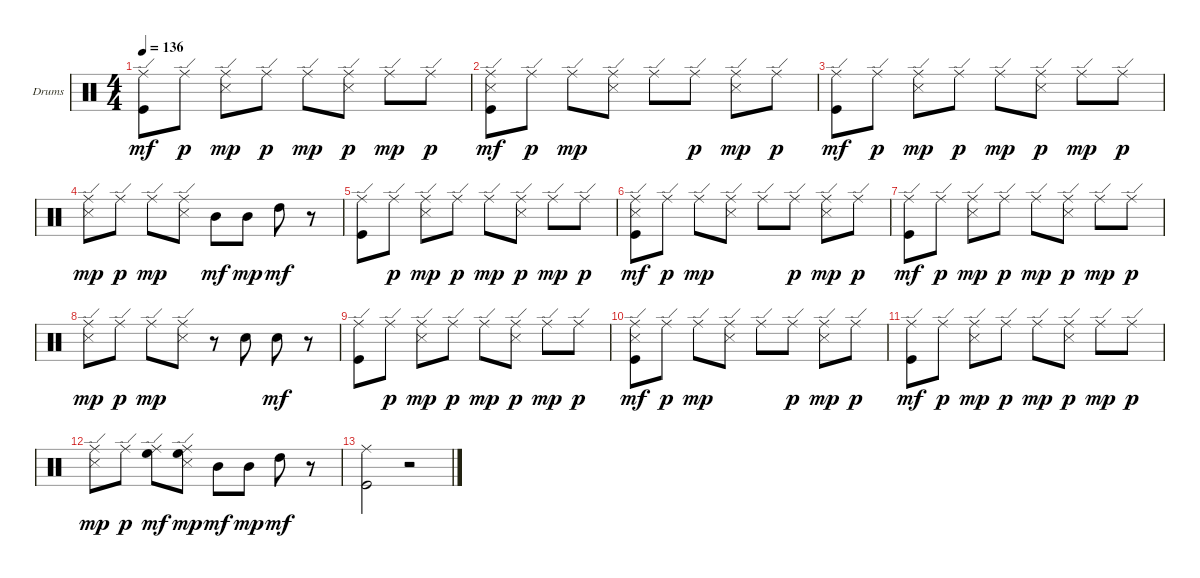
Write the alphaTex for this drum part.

\bracketExtendMode groupsimilarinstruments
\firstSystemTrackNameOrientation horizontal
\otherSystemsTrackNameOrientation horizontal
\track ("Drumkit" "Drums") {instrument percussion}
\staff {score}
\articulation defaults
\ts (4 4)
\tempo 136
\clef neutral
\ks c
("Kick (hit)" "Ride (edge)").8{dy mf} "Ride (edge)".8{dy p} ("Snare (side stick) 3" "Ride (edge)").8{dy mp} "Ride (edge)".8{dy p} "Ride (edge)".8{dy mp} ("Snare (side stick) 3" "Ride (edge)").8{dy p} "Ride (edge)".8{dy mp} "Ride (edge)".8{dy p} |
("Kick (hit)" "Snare (side stick) 3" "Ride (edge)").8{dy mf} "Ride (edge)".8{dy p} "Ride (edge)".8{dy mp} ("Snare (side stick) 3" "Ride (edge)").8 "Ride (edge)".8 "Ride (edge)".8{dy p} ("Snare (side stick) 3" "Ride (edge)").8{dy mp} "Ride (edge)".8{dy p} |
("Kick (hit)" "Ride (edge)").8{dy mf} "Ride (edge)".8{dy p} ("Snare (side stick) 3" "Ride (edge)").8{dy mp} "Ride (edge)".8{dy p} "Ride (edge)".8{dy mp} ("Snare (side stick) 3" "Ride (edge)").8{dy p} "Ride (edge)".8{dy mp} "Ride (edge)".8{dy p} |
("Snare (side stick) 3" "Ride (edge)").8{dy mp} "Ride (edge)".8{dy p} "Ride (edge)".8{dy mp} ("Snare (side stick) 3" "Ride (edge)").8 "Mid Tom (hit)".8{dy mf} "Mid Tom (hit)".8{dy mp} "High Tom (hit)".8{dy mf} r.8 |
("Kick (hit)" "Ride (edge)").8 "Ride (edge)".8{dy p} ("Snare (side stick) 3" "Ride (edge)").8{dy mp} "Ride (edge)".8{dy p} "Ride (edge)".8{dy mp} ("Snare (side stick) 3" "Ride (edge)").8{dy p} "Ride (edge)".8{dy mp} "Ride (edge)".8{dy p} |
("Kick (hit)" "Snare (side stick) 3" "Ride (edge)").8{dy mf} "Ride (edge)".8{dy p} "Ride (edge)".8{dy mp} ("Snare (side stick) 3" "Ride (edge)").8 "Ride (edge)".8 "Ride (edge)".8{dy p} ("Snare (side stick) 3" "Ride (edge)").8{dy mp} "Ride (edge)".8{dy p} |
("Kick (hit)" "Ride (edge)").8{dy mf} "Ride (edge)".8{dy p} ("Snare (side stick) 3" "Ride (edge)").8{dy mp} "Ride (edge)".8{dy p} "Ride (edge)".8{dy mp} ("Snare (side stick) 3" "Ride (edge)").8{dy p} "Ride (edge)".8{dy mp} "Ride (edge)".8{dy p} |
("Snare (side stick) 3" "Ride (edge)").8{dy mp} "Ride (edge)".8{dy p} "Ride (edge)".8{dy mp} ("Snare (side stick) 3" "Ride (edge)").8 r.8 "Snare (hit) 2".8 "Snare (hit) 2".8{dy mf} r.8 |
("Kick (hit)" "Ride (edge)").8 "Ride (edge)".8{dy p} ("Snare (side stick) 3" "Ride (edge)").8{dy mp} "Ride (edge)".8{dy p} "Ride (edge)".8{dy mp} ("Snare (side stick) 3" "Ride (edge)").8{dy p} "Ride (edge)".8{dy mp} "Ride (edge)".8{dy p} |
("Kick (hit)" "Snare (side stick) 3" "Ride (edge)").8{dy mf} "Ride (edge)".8{dy p} "Ride (edge)".8{dy mp} ("Snare (side stick) 3" "Ride (edge)").8 "Ride (edge)".8 "Ride (edge)".8{dy p} ("Snare (side stick) 3" "Ride (edge)").8{dy mp} "Ride (edge)".8{dy p} |
("Kick (hit)" "Ride (edge)").8{dy mf} "Ride (edge)".8{dy p} ("Snare (side stick) 3" "Ride (edge)").8{dy mp} "Ride (edge)".8{dy p} "Ride (edge)".8{dy mp} ("Snare (side stick) 3" "Ride (edge)").8{dy p} "Ride (edge)".8{dy mp} "Ride (edge)".8{dy p} |
("Snare (side stick) 3" "Ride (edge)").8{dy mp} "Ride (edge)".8{dy p} ("High Floor Tom (hit)" "Ride (edge)").8{dy mf} ("Snare (side stick) 3" "High Floor Tom (hit)" "Ride (edge)").8{dy mp} "Mid Tom (hit)".8{dy mf} "Mid Tom (hit)".8{dy mp} "High Tom (hit)".8{dy mf} r.8 |
("Kick (hit)" "Ride (middle)").2 r.2
